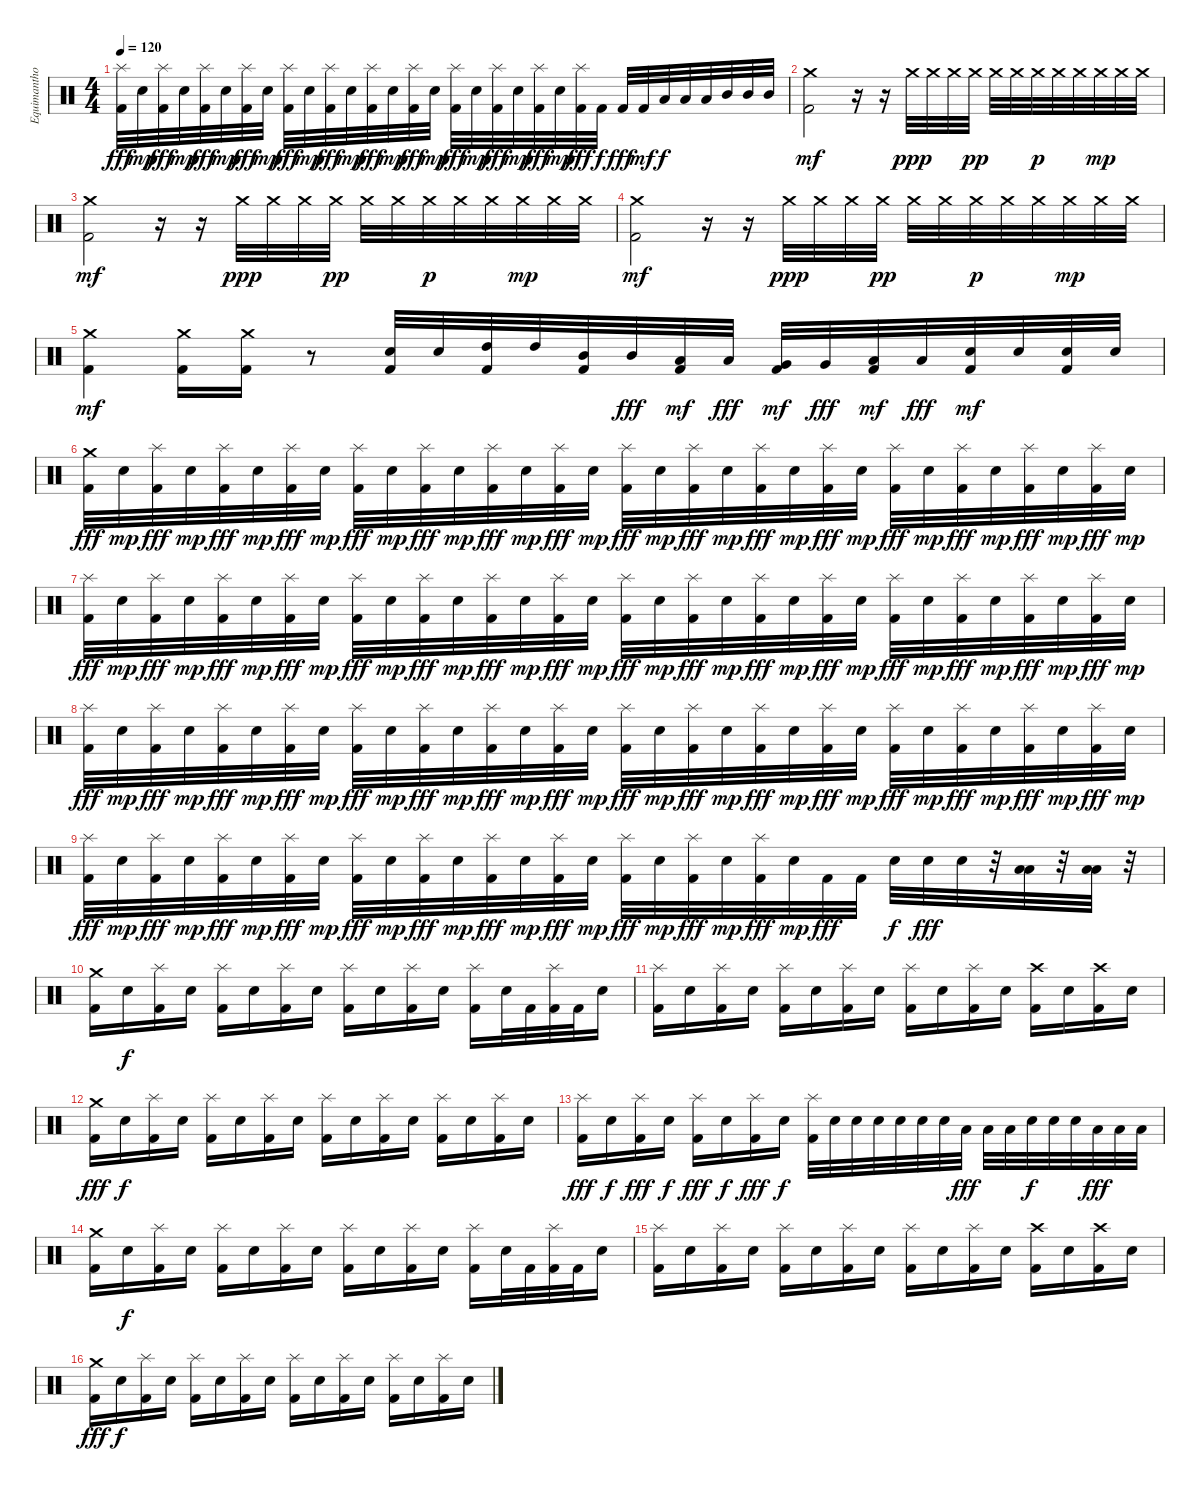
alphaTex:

\track ("Equimanthorn" "Equimantho") {instrument percussion}
\staff {score}
\articulation defaults
\ts (4 4)
\tempo 120
\clef neutral
\ks c
("Splash (hit)" "Kick (hit) 2").32{dy fff} "Snare (hit) 2".32{dy mp} ("Splash (hit)" "Kick (hit) 2").32{dy fff} "Snare (hit) 2".32{dy mp} ("Splash (hit)" "Kick (hit) 2").32{dy fff} "Snare (hit) 2".32{dy mp} ("Splash (hit)" "Kick (hit) 2").32{dy fff} "Snare (hit) 2".32{dy mp} ("Splash (hit)" "Kick (hit) 2").32{dy fff} "Snare (hit) 2".32{dy mp} ("Splash (hit)" "Kick (hit) 2").32{dy fff} "Snare (hit) 2".32{dy mp} ("Splash (hit)" "Kick (hit) 2").32{dy fff} "Snare (hit) 2".32{dy mp} ("Splash (hit)" "Kick (hit) 2").32{dy fff} "Snare (hit) 2".32{dy mp} ("Splash (hit)" "Kick (hit) 2").32{dy fff} "Snare (hit) 2".32{dy mp} ("Splash (hit)" "Kick (hit) 2").32{dy fff} "Snare (hit) 2".32{dy mp} ("Splash (hit)" "Kick (hit) 2").32{dy fff} "Snare (hit) 2".32{dy mp} ("Splash (hit)" "Kick (hit) 2").32{dy fff} "Kick (hit) 2".32{dy f} "Kick (hit) 2".32{dy fff} "Kick (hit) 2".32{dy mf} "Low Tom (hit)".32{dy f} "Low Tom (hit)".32 "Low Tom (hit)".32 "Mid Tom (hit)".32 "Mid Tom (hit)".32 "Mid Tom (hit)".32 |
("Crash medium (hit)" "Kick (hit) 2").2{dy mf} r.16 r.16 "Crash medium (hit)".32{dy ppp} "Crash medium (hit)".32 "Crash medium (hit)".32 "Crash medium (hit)".32{dy pp} "Crash medium (hit)".32 "Crash medium (hit)".32 "Crash medium (hit)".32{dy p} "Crash medium (hit)".32 "Crash medium (hit)".32 "Crash medium (hit)".32{dy mp} "Crash medium (hit)".32 "Crash medium (hit)".32 |
("Crash medium (hit)" "Kick (hit) 2").2{dy mf} r.16 r.16 "Crash medium (hit)".32{dy ppp} "Crash medium (hit)".32 "Crash medium (hit)".32 "Crash medium (hit)".32{dy pp} "Crash medium (hit)".32 "Crash medium (hit)".32 "Crash medium (hit)".32{dy p} "Crash medium (hit)".32 "Crash medium (hit)".32 "Crash medium (hit)".32{dy mp} "Crash medium (hit)".32 "Crash medium (hit)".32 |
("Crash medium (hit)" "Kick (hit) 2").2{dy mf} r.16 r.16 "Crash medium (hit)".32{dy ppp} "Crash medium (hit)".32 "Crash medium (hit)".32 "Crash medium (hit)".32{dy pp} "Crash medium (hit)".32 "Crash medium (hit)".32 "Crash medium (hit)".32{dy p} "Crash medium (hit)".32 "Crash medium (hit)".32 "Crash medium (hit)".32{dy mp} "Crash medium (hit)".32 "Crash medium (hit)".32 |
("Crash medium (hit)" "Kick (hit) 2").4{dy mf} ("Crash medium (hit)" "Kick (hit) 2").16 ("Crash medium (hit)" "Kick (hit) 2").16 r.8 ("Snare (hit) 2" "Kick (hit) 2").32 "Snare (hit) 2".32 ("High Tom (hit)" "Kick (hit) 2").32 "High Tom (hit)".32 ("Mid Tom (hit)" "Kick (hit) 2").32 "Mid Tom (hit)".32{dy fff} ("Low Tom (hit)" "Kick (hit) 2").32{dy mf} "Low Tom (hit)".32{dy fff} ("Very Low Tom (hit)" "Kick (hit) 2").32{dy mf} "Very Low Tom (hit)".32{dy fff} ("Low Tom (hit)" "Kick (hit) 2").32{dy mf} "Low Tom (hit)".32{dy fff} ("Snare (hit) 2" "Kick (hit) 2").32{dy mf} "Snare (hit) 2".32 ("Snare (hit) 2" "Kick (hit) 2").32 "Snare (hit) 2".32 |
("Crash medium (hit)" "Kick (hit) 2").32{dy fff} "Snare (hit) 2".32{dy mp} ("Splash (hit)" "Kick (hit) 2").32{dy fff} "Snare (hit) 2".32{dy mp} ("Splash (hit)" "Kick (hit) 2").32{dy fff} "Snare (hit) 2".32{dy mp} ("Splash (hit)" "Kick (hit) 2").32{dy fff} "Snare (hit) 2".32{dy mp} ("Splash (hit)" "Kick (hit) 2").32{dy fff} "Snare (hit) 2".32{dy mp} ("Splash (hit)" "Kick (hit) 2").32{dy fff} "Snare (hit) 2".32{dy mp} ("Splash (hit)" "Kick (hit) 2").32{dy fff} "Snare (hit) 2".32{dy mp} ("Splash (hit)" "Kick (hit) 2").32{dy fff} "Snare (hit) 2".32{dy mp} ("Splash (hit)" "Kick (hit) 2").32{dy fff} "Snare (hit) 2".32{dy mp} ("Splash (hit)" "Kick (hit) 2").32{dy fff} "Snare (hit) 2".32{dy mp} ("Splash (hit)" "Kick (hit) 2").32{dy fff} "Snare (hit) 2".32{dy mp} ("Splash (hit)" "Kick (hit) 2").32{dy fff} "Snare (hit) 2".32{dy mp} ("Splash (hit)" "Kick (hit) 2").32{dy fff} "Snare (hit) 2".32{dy mp} ("Splash (hit)" "Kick (hit) 2").32{dy fff} "Snare (hit) 2".32{dy mp} ("Splash (hit)" "Kick (hit) 2").32{dy fff} "Snare (hit) 2".32{dy mp} ("Splash (hit)" "Kick (hit) 2").32{dy fff} "Snare (hit) 2".32{dy mp} |
("Splash (hit)" "Kick (hit) 2").32{dy fff} "Snare (hit) 2".32{dy mp} ("Splash (hit)" "Kick (hit) 2").32{dy fff} "Snare (hit) 2".32{dy mp} ("Splash (hit)" "Kick (hit) 2").32{dy fff} "Snare (hit) 2".32{dy mp} ("Splash (hit)" "Kick (hit) 2").32{dy fff} "Snare (hit) 2".32{dy mp} ("Splash (hit)" "Kick (hit) 2").32{dy fff} "Snare (hit) 2".32{dy mp} ("Splash (hit)" "Kick (hit) 2").32{dy fff} "Snare (hit) 2".32{dy mp} ("Splash (hit)" "Kick (hit) 2").32{dy fff} "Snare (hit) 2".32{dy mp} ("Splash (hit)" "Kick (hit) 2").32{dy fff} "Snare (hit) 2".32{dy mp} ("Splash (hit)" "Kick (hit) 2").32{dy fff} "Snare (hit) 2".32{dy mp} ("Splash (hit)" "Kick (hit) 2").32{dy fff} "Snare (hit) 2".32{dy mp} ("Splash (hit)" "Kick (hit) 2").32{dy fff} "Snare (hit) 2".32{dy mp} ("Splash (hit)" "Kick (hit) 2").32{dy fff} "Snare (hit) 2".32{dy mp} ("Splash (hit)" "Kick (hit) 2").32{dy fff} "Snare (hit) 2".32{dy mp} ("Splash (hit)" "Kick (hit) 2").32{dy fff} "Snare (hit) 2".32{dy mp} ("Splash (hit)" "Kick (hit) 2").32{dy fff} "Snare (hit) 2".32{dy mp} ("Splash (hit)" "Kick (hit) 2").32{dy fff} "Snare (hit) 2".32{dy mp} |
("Splash (hit)" "Kick (hit) 2").32{dy fff} "Snare (hit) 2".32{dy mp} ("Splash (hit)" "Kick (hit) 2").32{dy fff} "Snare (hit) 2".32{dy mp} ("Splash (hit)" "Kick (hit) 2").32{dy fff} "Snare (hit) 2".32{dy mp} ("Splash (hit)" "Kick (hit) 2").32{dy fff} "Snare (hit) 2".32{dy mp} ("Splash (hit)" "Kick (hit) 2").32{dy fff} "Snare (hit) 2".32{dy mp} ("Splash (hit)" "Kick (hit) 2").32{dy fff} "Snare (hit) 2".32{dy mp} ("Splash (hit)" "Kick (hit) 2").32{dy fff} "Snare (hit) 2".32{dy mp} ("Splash (hit)" "Kick (hit) 2").32{dy fff} "Snare (hit) 2".32{dy mp} ("Splash (hit)" "Kick (hit) 2").32{dy fff} "Snare (hit) 2".32{dy mp} ("Splash (hit)" "Kick (hit) 2").32{dy fff} "Snare (hit) 2".32{dy mp} ("Splash (hit)" "Kick (hit) 2").32{dy fff} "Snare (hit) 2".32{dy mp} ("Splash (hit)" "Kick (hit) 2").32{dy fff} "Snare (hit) 2".32{dy mp} ("Splash (hit)" "Kick (hit) 2").32{dy fff} "Snare (hit) 2".32{dy mp} ("Splash (hit)" "Kick (hit) 2").32{dy fff} "Snare (hit) 2".32{dy mp} ("Splash (hit)" "Kick (hit) 2").32{dy fff} "Snare (hit) 2".32{dy mp} ("Splash (hit)" "Kick (hit) 2").32{dy fff} "Snare (hit) 2".32{dy mp} |
("Splash (hit)" "Kick (hit) 2").32{dy fff} "Snare (hit) 2".32{dy mp} ("Splash (hit)" "Kick (hit) 2").32{dy fff} "Snare (hit) 2".32{dy mp} ("Splash (hit)" "Kick (hit) 2").32{dy fff} "Snare (hit) 2".32{dy mp} ("Splash (hit)" "Kick (hit) 2").32{dy fff} "Snare (hit) 2".32{dy mp} ("Splash (hit)" "Kick (hit) 2").32{dy fff} "Snare (hit) 2".32{dy mp} ("Splash (hit)" "Kick (hit) 2").32{dy fff} "Snare (hit) 2".32{dy mp} ("Splash (hit)" "Kick (hit) 2").32{dy fff} "Snare (hit) 2".32{dy mp} ("Splash (hit)" "Kick (hit) 2").32{dy fff} "Snare (hit) 2".32{dy mp} ("Splash (hit)" "Kick (hit) 2").32{dy fff} "Snare (hit) 2".32{dy mp} ("Splash (hit)" "Kick (hit) 2").32{dy fff} "Snare (hit) 2".32{dy mp} ("Splash (hit)" "Kick (hit) 2").32{dy fff} "Snare (hit) 2".32{dy mp} "Kick (hit) 2".32{dy fff} "Kick (hit) 2".32 "Snare (hit) 2".32{dy f} "Snare (hit) 2".32{dy fff} "Snare (hit) 2".32 r.32 ("Low Tom (hit)" "Low Tom (hit)").32 r.32 ("Low Tom (hit)" "Low Tom (hit)").32 r.32 |
("Crash medium (hit)" "Kick (hit) 2").16 "Snare (hit) 2".16{dy f} ("Splash (hit)" "Kick (hit) 2").16 "Snare (hit) 2".16 ("Splash (hit)" "Kick (hit) 2").16 "Snare (hit) 2".16 ("Splash (hit)" "Kick (hit) 2").16 "Snare (hit) 2".16 ("Splash (hit)" "Kick (hit) 2").16 "Snare (hit) 2".16 ("Splash (hit)" "Kick (hit) 2").16 "Snare (hit) 2".16 ("Splash (hit)" "Kick (hit) 2").16 "Snare (hit) 2".32 "Kick (hit) 2".32 ("Splash (hit)" "Kick (hit) 2").32 "Kick (hit) 2".32 "Snare (hit) 2".16 |
("Splash (hit)" "Kick (hit) 2").16 "Snare (hit) 2".16 ("Splash (hit)" "Kick (hit) 2").16 "Snare (hit) 2".16 ("Splash (hit)" "Kick (hit) 2").16 "Snare (hit) 2".16 ("Splash (hit)" "Kick (hit) 2").16 "Snare (hit) 2".16 ("Splash (hit)" "Kick (hit) 2").16 "Snare (hit) 2".16 ("Splash (hit)" "Kick (hit) 2").16 "Snare (hit) 2".16 ("Crash high (hit)" "Kick (hit) 2").16 "Snare (hit) 2".16 ("Crash high (hit)" "Kick (hit) 2").16 "Snare (hit) 2".16 |
("Crash medium (hit)" "Kick (hit) 2").16{dy fff} "Snare (hit) 2".16{dy f} ("Splash (hit)" "Kick (hit) 2").16 "Snare (hit) 2".16 ("Splash (hit)" "Kick (hit) 2").16 "Snare (hit) 2".16 ("Splash (hit)" "Kick (hit) 2").16 "Snare (hit) 2".16 ("Splash (hit)" "Kick (hit) 2").16 "Snare (hit) 2".16 ("Splash (hit)" "Kick (hit) 2").16 "Snare (hit) 2".16 ("Splash (hit)" "Kick (hit) 2").16 "Snare (hit) 2".16 ("Splash (hit)" "Kick (hit) 2").16 "Snare (hit) 2".16 |
("Splash (hit)" "Kick (hit) 2").16{dy fff} "Snare (hit) 2".16{dy f} ("Splash (hit)" "Kick (hit) 2").16{dy fff} "Snare (hit) 2".16{dy f} ("Splash (hit)" "Kick (hit) 2").16{dy fff} "Snare (hit) 2".16{dy f} ("Splash (hit)" "Kick (hit) 2").16{dy fff} "Snare (hit) 2".16{dy f} ("Splash (hit)" "Kick (hit) 2").32 "Snare (hit) 2".32 "Snare (hit) 2".32 "Snare (hit) 2".32 "Snare (hit) 2".32 "Snare (hit) 2".32 "Snare (hit) 2".32 "Low Tom (hit)".32{dy fff} "Low Tom (hit)".32 "Low Tom (hit)".32 "Snare (hit) 2".32{dy f} "Snare (hit) 2".32 "Snare (hit) 2".32 "Low Tom (hit)".32{dy fff} "Low Tom (hit)".32 "Low Tom (hit)".32 |
("Crash medium (hit)" "Kick (hit) 2").16 "Snare (hit) 2".16{dy f} ("Splash (hit)" "Kick (hit) 2").16 "Snare (hit) 2".16 ("Splash (hit)" "Kick (hit) 2").16 "Snare (hit) 2".16 ("Splash (hit)" "Kick (hit) 2").16 "Snare (hit) 2".16 ("Splash (hit)" "Kick (hit) 2").16 "Snare (hit) 2".16 ("Splash (hit)" "Kick (hit) 2").16 "Snare (hit) 2".16 ("Splash (hit)" "Kick (hit) 2").16 "Snare (hit) 2".32 "Kick (hit) 2".32 ("Splash (hit)" "Kick (hit) 2").32 "Kick (hit) 2".32 "Snare (hit) 2".16 |
("Splash (hit)" "Kick (hit) 2").16 "Snare (hit) 2".16 ("Splash (hit)" "Kick (hit) 2").16 "Snare (hit) 2".16 ("Splash (hit)" "Kick (hit) 2").16 "Snare (hit) 2".16 ("Splash (hit)" "Kick (hit) 2").16 "Snare (hit) 2".16 ("Splash (hit)" "Kick (hit) 2").16 "Snare (hit) 2".16 ("Splash (hit)" "Kick (hit) 2").16 "Snare (hit) 2".16 ("Crash high (hit)" "Kick (hit) 2").16 "Snare (hit) 2".16 ("Crash high (hit)" "Kick (hit) 2").16 "Snare (hit) 2".16 |
("Crash medium (hit)" "Kick (hit) 2").16{dy fff} "Snare (hit) 2".16{dy f} ("Splash (hit)" "Kick (hit) 2").16 "Snare (hit) 2".16 ("Splash (hit)" "Kick (hit) 2").16 "Snare (hit) 2".16 ("Splash (hit)" "Kick (hit) 2").16 "Snare (hit) 2".16 ("Splash (hit)" "Kick (hit) 2").16 "Snare (hit) 2".16 ("Splash (hit)" "Kick (hit) 2").16 "Snare (hit) 2".16 ("Splash (hit)" "Kick (hit) 2").16 "Snare (hit) 2".16 ("Splash (hit)" "Kick (hit) 2").16 "Snare (hit) 2".16
